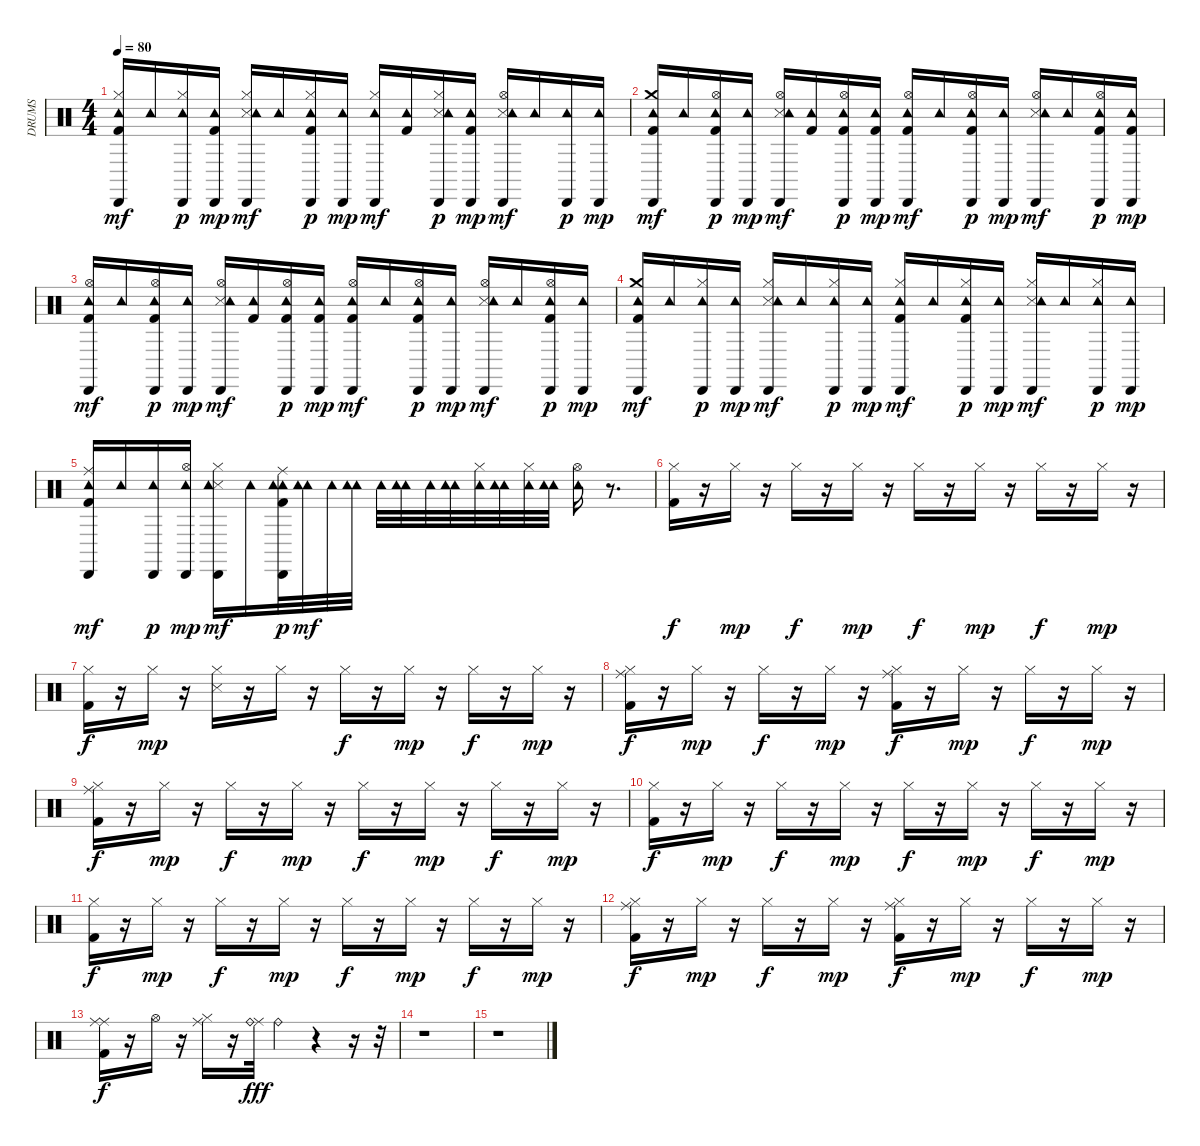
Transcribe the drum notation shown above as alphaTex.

\track ("DRUMS" "DRUMS") {instrument percussion}
\staff {score}
\articulation defaults
\ts (4 4)
\tempo 80
\clef neutral
\ks c
("Kick (hit) 2" "Hi-Hat (closed)" "Tambourine (hit)" "Cabasa (hit)").16{dy mf} "Tambourine (hit)".16 ("Hi-Hat (closed)" "Tambourine (hit)" "Cabasa (hit)").16{dy p} ("Kick (hit) 2" "Tambourine (hit)" "Cabasa (hit)").16{dy mp} ("Hi-Hat (closed)" "Metronome (hit)" "Tambourine (hit)" "Cabasa (hit)").16{dy mf} "Tambourine (hit)".16 ("Kick (hit) 2" "Hi-Hat (closed)" "Tambourine (hit)" "Cabasa (hit)").16{dy p} ("Tambourine (hit)" "Cabasa (hit)").16{dy mp} ("Hi-Hat (closed)" "Tambourine (hit)" "Cabasa (hit)").16{dy mf} ("Kick (hit) 2" "Tambourine (hit)").16 ("Metronome (hit)" "Hi-Hat (closed)" "Tambourine (hit)" "Cabasa (hit)").16{dy p} ("Kick (hit) 2" "Tambourine (hit)" "Cabasa (hit)").16{dy mp} ("Metronome (hit)" "Hi-Hat (open)" "Tambourine (hit)" "Cabasa (hit)").16{dy mf} "Tambourine (hit)".16 ("Tambourine (hit)" "Cabasa (hit)").16{dy p} ("Tambourine (hit)" "Cabasa (hit)").16{dy mp} |
("Kick (hit) 2" "Crash medium (hit)" "Tambourine (hit)" "Cabasa (hit)").16{dy mf} "Tambourine (hit)".16 ("Kick (hit) 2" "Hi-Hat (open)" "Tambourine (hit)" "Cabasa (hit)").16{dy p} ("Tambourine (hit)" "Cabasa (hit)").16{dy mp} ("Metronome (hit)" "Hi-Hat (open)" "Tambourine (hit)" "Cabasa (hit)").16{dy mf} ("Kick (hit) 2" "Tambourine (hit)").16 ("Hi-Hat (open)" "Kick (hit) 2" "Tambourine (hit)" "Cabasa (hit)").16{dy p} ("Kick (hit) 2" "Tambourine (hit)" "Cabasa (hit)").16{dy mp} ("Kick (hit) 2" "Hi-Hat (open)" "Tambourine (hit)" "Cabasa (hit)").16{dy mf} "Tambourine (hit)".16 ("Kick (hit) 2" "Hi-Hat (open)" "Tambourine (hit)" "Cabasa (hit)").16{dy p} ("Tambourine (hit)" "Cabasa (hit)").16{dy mp} ("Metronome (hit)" "Hi-Hat (open)" "Tambourine (hit)" "Cabasa (hit)").16{dy mf} "Tambourine (hit)".16 ("Kick (hit) 2" "Hi-Hat (open)" "Tambourine (hit)" "Cabasa (hit)").16{dy p} ("Kick (hit) 2" "Tambourine (hit)" "Cabasa (hit)").16{dy mp} |
("Kick (hit) 2" "Hi-Hat (open)" "Tambourine (hit)" "Cabasa (hit)").16{dy mf} "Tambourine (hit)".16 ("Kick (hit) 2" "Hi-Hat (open)" "Tambourine (hit)" "Cabasa (hit)").16{dy p} ("Tambourine (hit)" "Cabasa (hit)").16{dy mp} ("Metronome (hit)" "Hi-Hat (open)" "Tambourine (hit)" "Cabasa (hit)").16{dy mf} ("Kick (hit) 2" "Tambourine (hit)").16 ("Kick (hit) 2" "Hi-Hat (open)" "Tambourine (hit)" "Cabasa (hit)").16{dy p} ("Kick (hit) 2" "Tambourine (hit)" "Cabasa (hit)").16{dy mp} ("Kick (hit) 2" "Hi-Hat (open)" "Tambourine (hit)" "Cabasa (hit)").16{dy mf} "Tambourine (hit)".16 ("Kick (hit) 2" "Hi-Hat (open)" "Tambourine (hit)" "Cabasa (hit)").16{dy p} ("Tambourine (hit)" "Cabasa (hit)").16{dy mp} ("Metronome (hit)" "Hi-Hat (open)" "Tambourine (hit)" "Cabasa (hit)").16{dy mf} "Tambourine (hit)".16 ("Kick (hit) 2" "Hi-Hat (open)" "Tambourine (hit)" "Cabasa (hit)").16{dy p} ("Tambourine (hit)" "Cabasa (hit)").16{dy mp} |
("Kick (hit) 2" "Crash medium (hit)" "Tambourine (hit)" "Cabasa (hit)").16{dy mf} "Tambourine (hit)".16 ("Hi-Hat (closed)" "Tambourine (hit)" "Cabasa (hit)").16{dy p} ("Tambourine (hit)" "Cabasa (hit)").16{dy mp} ("Metronome (hit)" "Hi-Hat (closed)" "Tambourine (hit)" "Cabasa (hit)").16{dy mf} "Tambourine (hit)".16 ("Hi-Hat (closed)" "Tambourine (hit)" "Cabasa (hit)").16{dy p} ("Tambourine (hit)" "Cabasa (hit)").16{dy mp} ("Kick (hit) 2" "Hi-Hat (closed)" "Tambourine (hit)" "Cabasa (hit)").16{dy mf} "Tambourine (hit)".16 ("Kick (hit) 2" "Hi-Hat (closed)" "Tambourine (hit)" "Cabasa (hit)").16{dy p} ("Tambourine (hit)" "Cabasa (hit)").16{dy mp} ("Metronome (hit)" "Hi-Hat (closed)" "Tambourine (hit)" "Cabasa (hit)").16{dy mf} "Tambourine (hit)".16 ("Hi-Hat (closed)" "Tambourine (hit)" "Cabasa (hit)").16{dy p} ("Tambourine (hit)" "Cabasa (hit)").16{dy mp} |
("Kick (hit) 2" "Ride (middle)" "Tambourine (hit)" "Cabasa (hit)").16{dy mf} "Tambourine (hit)".16 ("Tambourine (hit)" "Cabasa (hit)").16{dy p} ("Hi-Hat (open)" "Tambourine (hit)" "Cabasa (hit)").16{dy mp} ("Metronome (hit)" "Hi-Hat (closed)" "Tambourine (hit)" "Cabasa (hit)").16{dy mf} "Tambourine (hit)".16 ("Kick (hit) 2" "Ride (middle)" "Tambourine (hit)" "Tambourine (hit)" "Cabasa (hit)").32{dy p} ("Tambourine (hit)" "Tambourine (hit)").32{dy mf} "Tambourine (hit)".32 ("Tambourine (hit)" "Tambourine (hit)").32 "Tambourine (hit)".32 ("Tambourine (hit)" "Tambourine (hit)").32 "Tambourine (hit)".32 ("Tambourine (hit)" "Tambourine (hit)").32 ("Hi-Hat (closed)" "Tambourine (hit)").32 ("Tambourine (hit)" "Tambourine (hit)").32 ("Hi-Hat (closed)" "Tambourine (hit)").32 ("Tambourine (hit)" "Tambourine (hit)").32 ("Hi-Hat (open)" "Tambourine (hit)").16 r.8{d} |
("Kick (hit) 2" "Hi-Hat (closed)").16{dy f} r.16 "Hi-Hat (closed)".16{dy mp} r.16 "Hi-Hat (closed)".16{dy f} r.16 "Hi-Hat (closed)".16{dy mp} r.16 "Hi-Hat (closed)".16{dy f} r.16 "Hi-Hat (closed)".16{dy mp} r.16 "Hi-Hat (closed)".16{dy f} r.16 "Hi-Hat (closed)".16{dy mp} r.16 |
("Kick (hit) 2" "Hi-Hat (closed)").16{dy f} r.16 "Hi-Hat (closed)".16{dy mp} r.16 ("Snare (side stick) 3" "Hi-Hat (closed)").16 r.16 "Hi-Hat (closed)".16 r.16 "Hi-Hat (closed)".16{dy f} r.16 "Hi-Hat (closed)".16{dy mp} r.16 "Hi-Hat (closed)".16{dy f} r.16 "Hi-Hat (closed)".16{dy mp} r.16 |
("Ride (middle)" "Kick (hit) 2" "Hi-Hat (closed)").16{dy f} r.16 "Hi-Hat (closed)".16{dy mp} r.16 "Hi-Hat (closed)".16{dy f} r.16 "Hi-Hat (closed)".16{dy mp} r.16 ("Kick (hit) 2" "Ride (middle)" "Hi-Hat (closed)").16{dy f} r.16 "Hi-Hat (closed)".16{dy mp} r.16 "Hi-Hat (closed)".16{dy f} r.16 "Hi-Hat (closed)".16{dy mp} r.16 |
("Ride (middle)" "Kick (hit) 2" "Hi-Hat (closed)").16{dy f} r.16 "Hi-Hat (closed)".16{dy mp} r.16 "Hi-Hat (closed)".16{dy f} r.16 "Hi-Hat (closed)".16{dy mp} r.16 "Hi-Hat (closed)".16{dy f} r.16 "Hi-Hat (closed)".16{dy mp} r.16 "Hi-Hat (closed)".16{dy f} r.16 "Hi-Hat (closed)".16{dy mp} r.16 |
("Kick (hit) 2" "Hi-Hat (closed)").16{dy f} r.16 "Hi-Hat (closed)".16{dy mp} r.16 "Hi-Hat (closed)".16{dy f} r.16 "Hi-Hat (closed)".16{dy mp} r.16 "Hi-Hat (closed)".16{dy f} r.16 "Hi-Hat (closed)".16{dy mp} r.16 "Hi-Hat (closed)".16{dy f} r.16 "Hi-Hat (closed)".16{dy mp} r.16 |
("Kick (hit) 2" "Hi-Hat (closed)").16{dy f} r.16 "Hi-Hat (closed)".16{dy mp} r.16 "Hi-Hat (closed)".16{dy f} r.16 "Hi-Hat (closed)".16{dy mp} r.16 "Hi-Hat (closed)".16{dy f} r.16 "Hi-Hat (closed)".16{dy mp} r.16 "Hi-Hat (closed)".16{dy f} r.16 "Hi-Hat (closed)".16{dy mp} r.16 |
("Ride (middle)" "Kick (hit) 2" "Hi-Hat (closed)").16{dy f} r.16 "Hi-Hat (closed)".16{dy mp} r.16 "Hi-Hat (closed)".16{dy f} r.16 "Hi-Hat (closed)".16{dy mp} r.16 ("Kick (hit) 2" "Ride (middle)" "Hi-Hat (closed)").16{dy f} r.16 "Hi-Hat (closed)".16{dy mp} r.16 "Hi-Hat (closed)".16{dy f} r.16 "Hi-Hat (closed)".16{dy mp} r.16 |
("Ride (middle)" "Kick (hit) 2" "Ride (middle)").16{dy f} r.16 "Hi-Hat (open)".16 r.16 ("Ride (middle)" "Hi-Hat (closed)").16 r.16 ("Ride (middle)" "Ride (bell)").32{dy fff} "Ride (bell)".4 r.4 r.16 r.32 |
r.1 |
r.1
